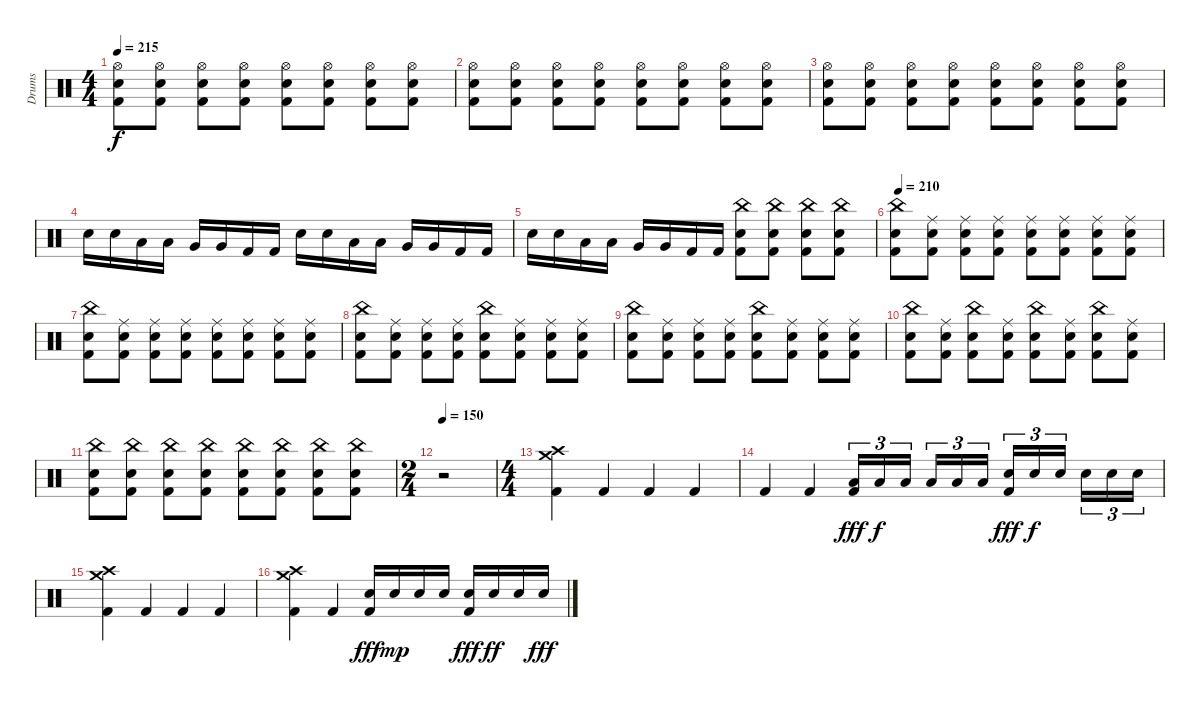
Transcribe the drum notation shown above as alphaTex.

\track ("Drums" "Drums") {instrument percussion}
\staff {score}
\articulation defaults
\ts (4 4)
\tempo 215
\clef neutral
\ks c
("Hi-Hat (open)" "Electric Snare (hit)" "Kick (hit) 2").8{dy f} ("Hi-Hat (open)" "Electric Snare (hit)" "Kick (hit) 2").8 ("Hi-Hat (open)" "Electric Snare (hit)" "Kick (hit) 2").8 ("Hi-Hat (open)" "Electric Snare (hit)" "Kick (hit) 2").8 ("Hi-Hat (open)" "Electric Snare (hit)" "Kick (hit) 2").8 ("Hi-Hat (open)" "Electric Snare (hit)" "Kick (hit) 2").8 ("Hi-Hat (open)" "Electric Snare (hit)" "Kick (hit) 2").8 ("Hi-Hat (open)" "Electric Snare (hit)" "Kick (hit) 2").8 |
("Hi-Hat (open)" "Electric Snare (hit)" "Kick (hit) 2").8 ("Hi-Hat (open)" "Electric Snare (hit)" "Kick (hit) 2").8 ("Hi-Hat (open)" "Electric Snare (hit)" "Kick (hit) 2").8 ("Hi-Hat (open)" "Electric Snare (hit)" "Kick (hit) 2").8 ("Hi-Hat (open)" "Electric Snare (hit)" "Kick (hit) 2").8 ("Hi-Hat (open)" "Electric Snare (hit)" "Kick (hit) 2").8 ("Hi-Hat (open)" "Electric Snare (hit)" "Kick (hit) 2").8 ("Hi-Hat (open)" "Electric Snare (hit)" "Kick (hit) 2").8 |
("Hi-Hat (open)" "Electric Snare (hit)" "Kick (hit) 2").8 ("Hi-Hat (open)" "Electric Snare (hit)" "Kick (hit) 2").8 ("Hi-Hat (open)" "Electric Snare (hit)" "Kick (hit) 2").8 ("Hi-Hat (open)" "Electric Snare (hit)" "Kick (hit) 2").8 ("Hi-Hat (open)" "Electric Snare (hit)" "Kick (hit) 2").8 ("Hi-Hat (open)" "Electric Snare (hit)" "Kick (hit) 2").8 ("Hi-Hat (open)" "Electric Snare (hit)" "Kick (hit) 2").8 ("Hi-Hat (open)" "Electric Snare (hit)" "Kick (hit) 2").8 |
"Electric Snare (hit)".16 "Electric Snare (hit)".16 "Low Tom (hit)".16 "Low Tom (hit)".16 "Very Low Tom (hit)".16 "Very Low Tom (hit)".16 "Kick (hit) 2".16 "Kick (hit) 2".16 "Electric Snare (hit)".16 "Electric Snare (hit)".16 "Low Tom (hit)".16 "Low Tom (hit)".16 "Very Low Tom (hit)".16 "Very Low Tom (hit)".16 "Kick (hit) 2".16 "Kick (hit) 2".16 |
"Electric Snare (hit)".16 "Electric Snare (hit)".16 "Low Tom (hit)".16 "Low Tom (hit)".16 "Very Low Tom (hit)".16 "Very Low Tom (hit)".16 "Kick (hit) 2".16 "Kick (hit) 2".16 ("China (hit)" "Electric Snare (hit)" "Kick (hit) 2").8 ("China (hit)" "Electric Snare (hit)" "Kick (hit) 2").8 ("China (hit)" "Electric Snare (hit)" "Kick (hit) 2").8 ("China (hit)" "Electric Snare (hit)" "Kick (hit) 2").8 |
\tempo 210
("China (hit)" "Electric Snare (hit)" "Kick (hit) 2").8 ("Ride (middle)" "Electric Snare (hit)" "Kick (hit) 2").8 ("Ride (middle)" "Electric Snare (hit)" "Kick (hit) 2").8 ("Ride (middle)" "Electric Snare (hit)" "Kick (hit) 2").8 ("Ride (middle)" "Electric Snare (hit)" "Kick (hit) 2").8 ("Ride (middle)" "Electric Snare (hit)" "Kick (hit) 2").8 ("Ride (middle)" "Electric Snare (hit)" "Kick (hit) 2").8 ("Ride (middle)" "Electric Snare (hit)" "Kick (hit) 2").8 |
("China (hit)" "Electric Snare (hit)" "Kick (hit) 2").8 ("Ride (middle)" "Electric Snare (hit)" "Kick (hit) 2").8 ("Ride (middle)" "Electric Snare (hit)" "Kick (hit) 2").8 ("Ride (middle)" "Electric Snare (hit)" "Kick (hit) 2").8 ("Ride (middle)" "Electric Snare (hit)" "Kick (hit) 2").8 ("Ride (middle)" "Electric Snare (hit)" "Kick (hit) 2").8 ("Ride (middle)" "Electric Snare (hit)" "Kick (hit) 2").8 ("Ride (middle)" "Electric Snare (hit)" "Kick (hit) 2").8 |
("China (hit)" "Electric Snare (hit)" "Kick (hit) 2").8 ("Ride (middle)" "Electric Snare (hit)" "Kick (hit) 2").8 ("Ride (middle)" "Electric Snare (hit)" "Kick (hit) 2").8 ("Ride (middle)" "Electric Snare (hit)" "Kick (hit) 2").8 ("China (hit)" "Electric Snare (hit)" "Kick (hit) 2").8 ("Ride (middle)" "Electric Snare (hit)" "Kick (hit) 2").8 ("Ride (middle)" "Electric Snare (hit)" "Kick (hit) 2").8 ("Ride (middle)" "Electric Snare (hit)" "Kick (hit) 2").8 |
("China (hit)" "Electric Snare (hit)" "Kick (hit) 2").8 ("Ride (middle)" "Electric Snare (hit)" "Kick (hit) 2").8 ("Ride (middle)" "Electric Snare (hit)" "Kick (hit) 2").8 ("Ride (middle)" "Electric Snare (hit)" "Kick (hit) 2").8 ("China (hit)" "Electric Snare (hit)" "Kick (hit) 2").8 ("Ride (middle)" "Electric Snare (hit)" "Kick (hit) 2").8 ("Ride (middle)" "Electric Snare (hit)" "Kick (hit) 2").8 ("Ride (middle)" "Electric Snare (hit)" "Kick (hit) 2").8 |
("China (hit)" "Electric Snare (hit)" "Kick (hit) 2").8 ("Ride (middle)" "Electric Snare (hit)" "Kick (hit) 2").8 ("China (hit)" "Electric Snare (hit)" "Kick (hit) 2").8 ("Ride (middle)" "Electric Snare (hit)" "Kick (hit) 2").8 ("China (hit)" "Electric Snare (hit)" "Kick (hit) 2").8 ("Ride (middle)" "Electric Snare (hit)" "Kick (hit) 2").8 ("China (hit)" "Electric Snare (hit)" "Kick (hit) 2").8 ("Ride (middle)" "Electric Snare (hit)" "Kick (hit) 2").8 |
("China (hit)" "Electric Snare (hit)" "Kick (hit) 2").8 ("China (hit)" "Electric Snare (hit)" "Kick (hit) 2").8 ("China (hit)" "Electric Snare (hit)" "Kick (hit) 2").8 ("China (hit)" "Electric Snare (hit)" "Kick (hit) 2").8 ("China (hit)" "Electric Snare (hit)" "Kick (hit) 2").8 ("China (hit)" "Electric Snare (hit)" "Kick (hit) 2").8 ("China (hit)" "Electric Snare (hit)" "Kick (hit) 2").8 ("China (hit)" "Electric Snare (hit)" "Kick (hit) 2").8 |
\ts (2 4)
\tempo 150
r.2 |
\ts (4 4)
("Crash medium (hit)" "Crash high (hit)" "Kick (hit) 2").4 "Kick (hit) 2".4 "Kick (hit) 2".4 "Kick (hit) 2".4 |
"Kick (hit) 2".4 "Kick (hit) 2".4 ("Low Tom (hit)" "Kick (hit) 2").16{tu (3 2) dy fff} "Low Tom (hit)".16{tu (3 2) dy f} "Low Tom (hit)".16{tu (3 2) beam splitsecondary} "Low Tom (hit)".16{tu (3 2)} "Low Tom (hit)".16{tu (3 2)} "Low Tom (hit)".16{tu (3 2)} ("Electric Snare (hit)" "Kick (hit) 2").16{tu (3 2) dy fff} "Electric Snare (hit)".16{tu (3 2) dy f} "Electric Snare (hit)".16{tu (3 2) beam splitsecondary} "Electric Snare (hit)".16{tu (3 2)} "Electric Snare (hit)".16{tu (3 2)} "Electric Snare (hit)".16{tu (3 2)} |
("Crash medium (hit)" "Crash high (hit)" "Kick (hit) 2").4 "Kick (hit) 2".4 "Kick (hit) 2".4 "Kick (hit) 2".4 |
("Crash medium (hit)" "Crash high (hit)" "Kick (hit) 2").4 "Kick (hit) 2".4 ("Electric Snare (hit)" "Kick (hit) 2").16{dy fff} "Electric Snare (hit)".16{dy mp} "Electric Snare (hit)".16 "Electric Snare (hit)".16 ("Electric Snare (hit)" "Kick (hit) 2").16{dy fff} "Electric Snare (hit)".16{dy ff} "Electric Snare (hit)".16 "Electric Snare (hit)".16{dy fff}
